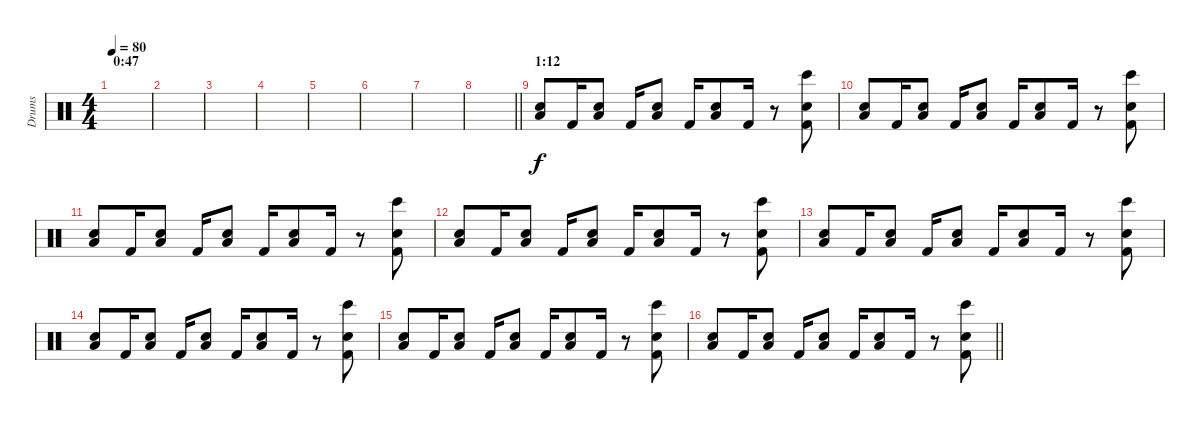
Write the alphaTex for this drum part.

\track ("Drums" "Drums") {instrument percussion}
\staff {score}
\articulation defaults
\ts (4 4)
\section ("" "0:47")
\tempo 80
\clef neutral
\ks c
|
|
|
|
|
|
|
\barLineRight lightlight
|
\section ("" "1:12")
("Snare (hit) 2" "Low Floor Tom (hit)").8 "Kick (hit) 2".16 ("Snare (hit) 2" "Low Floor Tom (hit)").8 "Kick (hit) 2".16 ("Snare (hit) 2" "Low Floor Tom (hit)").8 "Kick (hit) 2".16 ("Snare (hit) 2" "Low Floor Tom (hit)").8 "Kick (hit) 2".16 r.8 ("Bongo High (hit)" "Kick (hit) 2" "Snare (hit) 2").8 |
("Snare (hit) 2" "Low Floor Tom (hit)").8 "Kick (hit) 2".16 ("Snare (hit) 2" "Low Floor Tom (hit)").8 "Kick (hit) 2".16 ("Snare (hit) 2" "Low Floor Tom (hit)").8 "Kick (hit) 2".16 ("Snare (hit) 2" "Low Floor Tom (hit)").8 "Kick (hit) 2".16 r.8 ("Bongo High (hit)" "Kick (hit) 2" "Snare (hit) 2").8 |
("Snare (hit) 2" "Low Floor Tom (hit)").8 "Kick (hit) 2".16 ("Snare (hit) 2" "Low Floor Tom (hit)").8 "Kick (hit) 2".16 ("Snare (hit) 2" "Low Floor Tom (hit)").8 "Kick (hit) 2".16 ("Snare (hit) 2" "Low Floor Tom (hit)").8 "Kick (hit) 2".16 r.8 ("Bongo High (hit)" "Kick (hit) 2" "Snare (hit) 2").8 |
("Snare (hit) 2" "Low Floor Tom (hit)").8 "Kick (hit) 2".16 ("Snare (hit) 2" "Low Floor Tom (hit)").8 "Kick (hit) 2".16 ("Snare (hit) 2" "Low Floor Tom (hit)").8 "Kick (hit) 2".16 ("Snare (hit) 2" "Low Floor Tom (hit)").8 "Kick (hit) 2".16 r.8 ("Bongo High (hit)" "Kick (hit) 2" "Snare (hit) 2").8 |
("Snare (hit) 2" "Low Floor Tom (hit)").8 "Kick (hit) 2".16 ("Snare (hit) 2" "Low Floor Tom (hit)").8 "Kick (hit) 2".16 ("Snare (hit) 2" "Low Floor Tom (hit)").8 "Kick (hit) 2".16 ("Snare (hit) 2" "Low Floor Tom (hit)").8 "Kick (hit) 2".16 r.8 ("Bongo High (hit)" "Kick (hit) 2" "Snare (hit) 2").8 |
("Snare (hit) 2" "Low Floor Tom (hit)").8 "Kick (hit) 2".16 ("Snare (hit) 2" "Low Floor Tom (hit)").8 "Kick (hit) 2".16 ("Snare (hit) 2" "Low Floor Tom (hit)").8 "Kick (hit) 2".16 ("Snare (hit) 2" "Low Floor Tom (hit)").8 "Kick (hit) 2".16 r.8 ("Bongo High (hit)" "Kick (hit) 2" "Snare (hit) 2").8 |
("Snare (hit) 2" "Low Floor Tom (hit)").8 "Kick (hit) 2".16 ("Snare (hit) 2" "Low Floor Tom (hit)").8 "Kick (hit) 2".16 ("Snare (hit) 2" "Low Floor Tom (hit)").8 "Kick (hit) 2".16 ("Snare (hit) 2" "Low Floor Tom (hit)").8 "Kick (hit) 2".16 r.8 ("Bongo High (hit)" "Kick (hit) 2" "Snare (hit) 2").8 |
\barLineRight lightlight
("Snare (hit) 2" "Low Floor Tom (hit)").8 "Kick (hit) 2".16 ("Snare (hit) 2" "Low Floor Tom (hit)").8 "Kick (hit) 2".16 ("Snare (hit) 2" "Low Floor Tom (hit)").8 "Kick (hit) 2".16 ("Snare (hit) 2" "Low Floor Tom (hit)").8 "Kick (hit) 2".16 r.8 ("Bongo High (hit)" "Kick (hit) 2" "Snare (hit) 2").8
